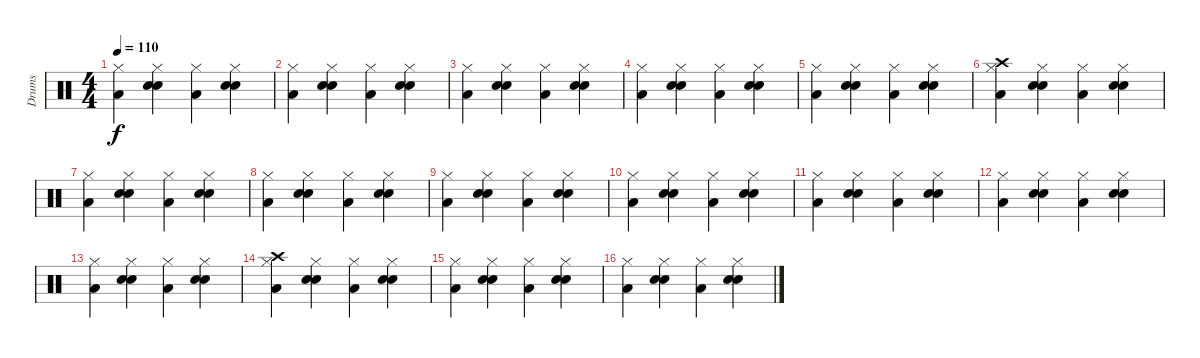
\track ("Drums" "Drums") {instrument percussion}
\staff {score}
\articulation defaults
\ts (4 4)
\tempo 110
\clef neutral
\ks c
("Hi-Hat (closed)" "Low Tom (hit)").4{dy f} ("Hi-Hat (closed)" "Electric Snare (hit)" "Snare (hit) 2").4 ("Hi-Hat (closed)" "Low Tom (hit)").4 ("Hi-Hat (closed)" "Electric Snare (hit)" "Snare (hit) 2").4 |
("Hi-Hat (closed)" "Low Tom (hit)").4 ("Hi-Hat (closed)" "Electric Snare (hit)" "Snare (hit) 2").4 ("Hi-Hat (closed)" "Low Tom (hit)").4 ("Hi-Hat (closed)" "Electric Snare (hit)" "Snare (hit) 2").4 |
("Hi-Hat (closed)" "Low Tom (hit)").4 ("Hi-Hat (closed)" "Electric Snare (hit)" "Snare (hit) 2").4 ("Hi-Hat (closed)" "Low Tom (hit)").4 ("Hi-Hat (closed)" "Electric Snare (hit)" "Snare (hit) 2").4 |
("Hi-Hat (closed)" "Low Tom (hit)").4 ("Hi-Hat (closed)" "Electric Snare (hit)" "Snare (hit) 2").4 ("Hi-Hat (closed)" "Low Tom (hit)").4 ("Hi-Hat (closed)" "Electric Snare (hit)" "Snare (hit) 2").4 |
("Hi-Hat (closed)" "Low Tom (hit)").4 ("Hi-Hat (closed)" "Electric Snare (hit)" "Snare (hit) 2").4 ("Hi-Hat (closed)" "Low Tom (hit)").4 ("Hi-Hat (closed)" "Electric Snare (hit)" "Snare (hit) 2").4 |
("Hi-Hat (closed)" "Low Tom (hit)" "Crash high (hit)").4 ("Hi-Hat (closed)" "Electric Snare (hit)" "Snare (hit) 2").4 ("Hi-Hat (closed)" "Low Tom (hit)").4 ("Hi-Hat (closed)" "Electric Snare (hit)" "Snare (hit) 2").4 |
("Hi-Hat (closed)" "Low Tom (hit)").4 ("Hi-Hat (closed)" "Electric Snare (hit)" "Snare (hit) 2").4 ("Hi-Hat (closed)" "Low Tom (hit)").4 ("Hi-Hat (closed)" "Electric Snare (hit)" "Snare (hit) 2").4 |
("Hi-Hat (closed)" "Low Tom (hit)").4 ("Hi-Hat (closed)" "Electric Snare (hit)" "Snare (hit) 2").4 ("Hi-Hat (closed)" "Low Tom (hit)").4 ("Hi-Hat (closed)" "Electric Snare (hit)" "Snare (hit) 2").4 |
("Hi-Hat (closed)" "Low Tom (hit)").4 ("Hi-Hat (closed)" "Electric Snare (hit)" "Snare (hit) 2").4 ("Hi-Hat (closed)" "Low Tom (hit)").4 ("Hi-Hat (closed)" "Electric Snare (hit)" "Snare (hit) 2").4 |
("Hi-Hat (closed)" "Low Tom (hit)").4 ("Hi-Hat (closed)" "Electric Snare (hit)" "Snare (hit) 2").4 ("Hi-Hat (closed)" "Low Tom (hit)").4 ("Hi-Hat (closed)" "Electric Snare (hit)" "Snare (hit) 2").4 |
("Hi-Hat (closed)" "Low Tom (hit)").4 ("Hi-Hat (closed)" "Electric Snare (hit)" "Snare (hit) 2").4 ("Hi-Hat (closed)" "Low Tom (hit)").4 ("Hi-Hat (closed)" "Electric Snare (hit)" "Snare (hit) 2").4 |
("Hi-Hat (closed)" "Low Tom (hit)").4 ("Hi-Hat (closed)" "Electric Snare (hit)" "Snare (hit) 2").4 ("Hi-Hat (closed)" "Low Tom (hit)").4 ("Hi-Hat (closed)" "Electric Snare (hit)" "Snare (hit) 2").4 |
("Hi-Hat (closed)" "Low Tom (hit)").4 ("Hi-Hat (closed)" "Electric Snare (hit)" "Snare (hit) 2").4 ("Hi-Hat (closed)" "Low Tom (hit)").4 ("Hi-Hat (closed)" "Electric Snare (hit)" "Snare (hit) 2").4 |
("Hi-Hat (closed)" "Low Tom (hit)" "Crash high (hit)").4 ("Hi-Hat (closed)" "Electric Snare (hit)" "Snare (hit) 2").4 ("Hi-Hat (closed)" "Low Tom (hit)").4 ("Hi-Hat (closed)" "Electric Snare (hit)" "Snare (hit) 2").4 |
("Hi-Hat (closed)" "Low Tom (hit)").4 ("Hi-Hat (closed)" "Electric Snare (hit)" "Snare (hit) 2").4 ("Hi-Hat (closed)" "Low Tom (hit)").4 ("Hi-Hat (closed)" "Electric Snare (hit)" "Snare (hit) 2").4 |
("Hi-Hat (closed)" "Low Tom (hit)").4 ("Hi-Hat (closed)" "Electric Snare (hit)" "Snare (hit) 2").4 ("Hi-Hat (closed)" "Low Tom (hit)").4 ("Hi-Hat (closed)" "Electric Snare (hit)" "Snare (hit) 2").4
